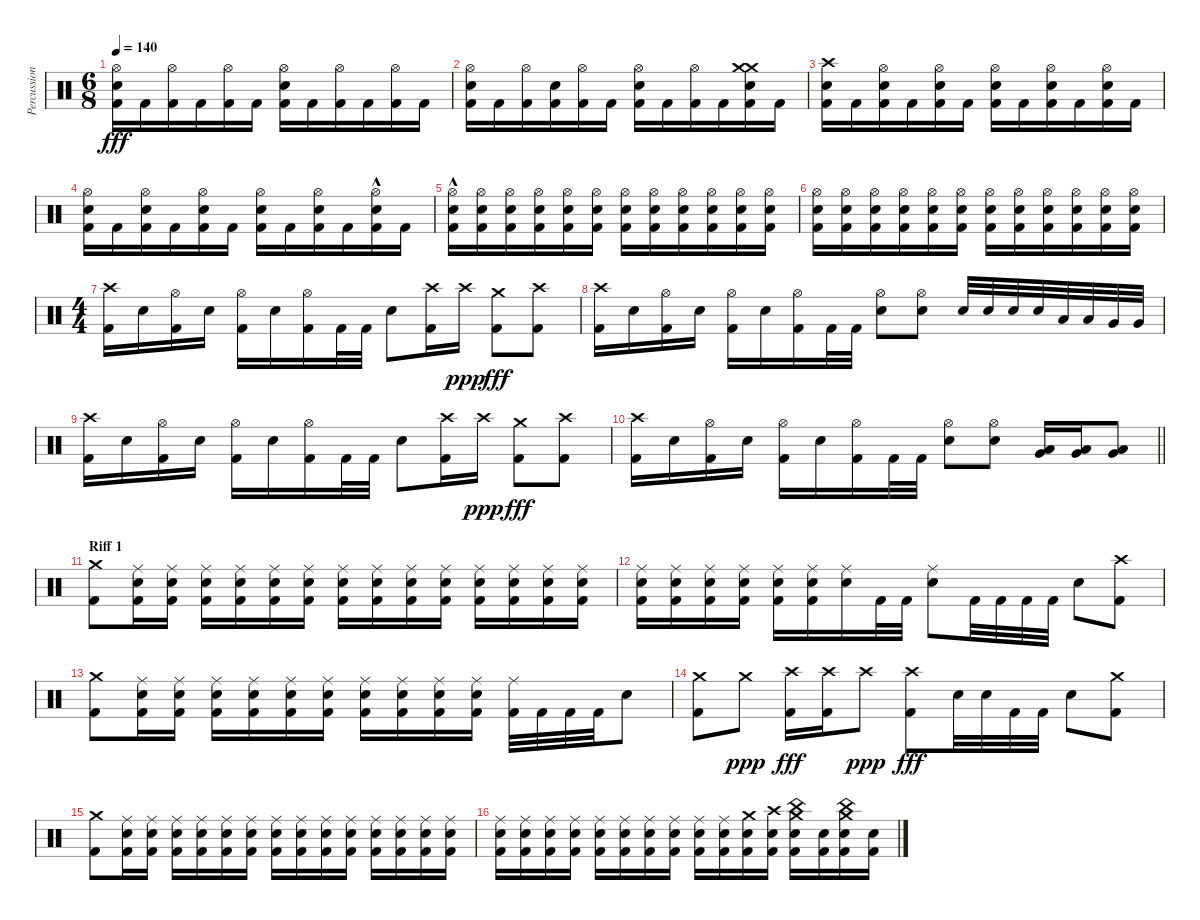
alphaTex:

\track ("Percussion" "Percussion") {instrument percussion}
\staff {score}
\articulation defaults
\ts (6 8)
\tempo 140
\clef neutral
\ks c
("Hi-Hat (open)" "Electric Snare (hit)" "Kick (hit) 2").16{dy fff} "Kick (hit) 2".16 ("Hi-Hat (open)" "Kick (hit) 2").16 "Kick (hit) 2".16 ("Hi-Hat (open)" "Kick (hit) 2").16 "Kick (hit) 2".16 ("Hi-Hat (open)" "Electric Snare (hit)" "Kick (hit) 2").16 "Kick (hit) 2".16 ("Hi-Hat (open)" "Kick (hit) 2").16 "Kick (hit) 2".16 ("Hi-Hat (open)" "Kick (hit) 2").16 "Kick (hit) 2".16 |
("Hi-Hat (open)" "Electric Snare (hit)" "Kick (hit) 2").16 "Kick (hit) 2".16 ("Hi-Hat (open)" "Kick (hit) 2").16 ("Electric Snare (hit)" "Kick (hit) 2").16 ("Hi-Hat (open)" "Kick (hit) 2").16 "Kick (hit) 2".16 ("Hi-Hat (open)" "Electric Snare (hit)" "Kick (hit) 2").16 "Kick (hit) 2".16 ("Hi-Hat (open)" "Kick (hit) 2").16 "Kick (hit) 2".16 ("Crash medium (hit)" "Crash medium (hit)" "Electric Snare (hit)" "Kick (hit) 2").16 "Kick (hit) 2".16 |
("Crash high (hit)" "Electric Snare (hit)" "Kick (hit) 2").16 "Kick (hit) 2".16 ("Hi-Hat (open)" "Electric Snare (hit)" "Kick (hit) 2").16 "Kick (hit) 2".16 ("Hi-Hat (open)" "Electric Snare (hit)" "Kick (hit) 2").16 "Kick (hit) 2".16 ("Hi-Hat (open)" "Electric Snare (hit)" "Kick (hit) 2").16 "Kick (hit) 2".16 ("Hi-Hat (open)" "Electric Snare (hit)" "Kick (hit) 2").16 "Kick (hit) 2".16 ("Hi-Hat (open)" "Electric Snare (hit)" "Kick (hit) 2").16 "Kick (hit) 2".16 |
("Hi-Hat (open)" "Electric Snare (hit)" "Kick (hit) 2").16 "Kick (hit) 2".16 ("Hi-Hat (open)" "Electric Snare (hit)" "Kick (hit) 2").16 "Kick (hit) 2".16 ("Hi-Hat (open)" "Electric Snare (hit)" "Kick (hit) 2").16 "Kick (hit) 2".16 ("Hi-Hat (open)" "Electric Snare (hit)" "Kick (hit) 2").16 "Kick (hit) 2".16 ("Hi-Hat (open)" "Electric Snare (hit)" "Kick (hit) 2").16 "Kick (hit) 2".16 ("Hi-Hat (open)" "Electric Snare (hit)"{hac} "Kick (hit) 2").16 "Kick (hit) 2".16 |
("Hi-Hat (open)" "Electric Snare (hit)"{hac} "Kick (hit) 2").16 ("Hi-Hat (open)" "Electric Snare (hit)" "Kick (hit) 2").16 ("Hi-Hat (open)" "Electric Snare (hit)" "Kick (hit) 2").16 ("Hi-Hat (open)" "Electric Snare (hit)" "Kick (hit) 2").16 ("Hi-Hat (open)" "Electric Snare (hit)" "Kick (hit) 2").16 ("Hi-Hat (open)" "Electric Snare (hit)" "Kick (hit) 2").16 ("Hi-Hat (open)" "Electric Snare (hit)" "Kick (hit) 2").16 ("Hi-Hat (open)" "Electric Snare (hit)" "Kick (hit) 2").16 ("Hi-Hat (open)" "Electric Snare (hit)" "Kick (hit) 2").16 ("Hi-Hat (open)" "Electric Snare (hit)" "Kick (hit) 2").16 ("Hi-Hat (open)" "Electric Snare (hit)" "Kick (hit) 2").16 ("Hi-Hat (open)" "Electric Snare (hit)" "Kick (hit) 2").16 |
("Hi-Hat (open)" "Electric Snare (hit)" "Kick (hit) 2").16 ("Hi-Hat (open)" "Electric Snare (hit)" "Kick (hit) 2").16 ("Hi-Hat (open)" "Electric Snare (hit)" "Kick (hit) 2").16 ("Hi-Hat (open)" "Electric Snare (hit)" "Kick (hit) 2").16 ("Hi-Hat (open)" "Electric Snare (hit)" "Kick (hit) 2").16 ("Hi-Hat (open)" "Electric Snare (hit)" "Kick (hit) 2").16 ("Hi-Hat (open)" "Electric Snare (hit)" "Kick (hit) 2").16 ("Hi-Hat (open)" "Electric Snare (hit)" "Kick (hit) 2").16 ("Hi-Hat (open)" "Electric Snare (hit)" "Kick (hit) 2").16 ("Hi-Hat (open)" "Electric Snare (hit)" "Kick (hit) 2").16 ("Hi-Hat (open)" "Electric Snare (hit)" "Kick (hit) 2").16 ("Hi-Hat (open)" "Electric Snare (hit)" "Kick (hit) 2").16 |
\ts (4 4)
("Crash high (hit)" "Kick (hit) 2").16 "Electric Snare (hit)".16 ("Hi-Hat (open)" "Kick (hit) 2").16 "Electric Snare (hit)".16 ("Hi-Hat (open)" "Kick (hit) 2").16 "Electric Snare (hit)".16 ("Hi-Hat (open)" "Kick (hit) 2").16 "Kick (hit) 2".32 "Kick (hit) 2".32 "Electric Snare (hit)".8 ("Crash high (hit)" "Kick (hit) 2").16 "Crash high (hit)".16{dy ppp} ("Crash medium (hit)" "Kick (hit) 2").8{dy fff} ("Crash high (hit)" "Kick (hit) 2").8 |
("Crash high (hit)" "Kick (hit) 2").16 "Electric Snare (hit)".16 ("Hi-Hat (open)" "Kick (hit) 2").16 "Electric Snare (hit)".16 ("Hi-Hat (open)" "Kick (hit) 2").16 "Electric Snare (hit)".16 ("Hi-Hat (open)" "Kick (hit) 2").16 "Kick (hit) 2".32 "Kick (hit) 2".32 ("Hi-Hat (open)" "Electric Snare (hit)").8 ("Hi-Hat (open)" "Electric Snare (hit)").8 "Electric Snare (hit)".32 "Electric Snare (hit)".32 "Electric Snare (hit)".32 "Electric Snare (hit)".32 "Low Tom (hit)".32 "Low Tom (hit)".32 "Very Low Tom (hit)".32 "Very Low Tom (hit)".32 |
("Crash high (hit)" "Kick (hit) 2").16 "Electric Snare (hit)".16 ("Hi-Hat (open)" "Kick (hit) 2").16 "Electric Snare (hit)".16 ("Hi-Hat (open)" "Kick (hit) 2").16 "Electric Snare (hit)".16 ("Hi-Hat (open)" "Kick (hit) 2").16 "Kick (hit) 2".32 "Kick (hit) 2".32 "Electric Snare (hit)".8 ("Crash high (hit)" "Kick (hit) 2").16 "Crash high (hit)".16{dy ppp} ("Crash medium (hit)" "Kick (hit) 2").8{dy fff} ("Crash high (hit)" "Kick (hit) 2").8 |
\barLineRight lightlight
("Crash high (hit)" "Kick (hit) 2").16 "Electric Snare (hit)".16 ("Hi-Hat (open)" "Kick (hit) 2").16 "Electric Snare (hit)".16 ("Hi-Hat (open)" "Kick (hit) 2").16 "Electric Snare (hit)".16 ("Hi-Hat (open)" "Kick (hit) 2").16 "Kick (hit) 2".32 "Kick (hit) 2".32 ("Hi-Hat (open)" "Electric Snare (hit)").8 ("Hi-Hat (open)" "Electric Snare (hit)").8 ("Very Low Tom (hit)" "Low Floor Tom (hit)").16 ("Very Low Tom (hit)" "Low Floor Tom (hit)").16 ("Very Low Tom (hit)" "Low Floor Tom (hit)").8 |
\section ("" "Riff 1")
("Crash medium (hit)" "Kick (hit) 2").8 ("Ride (middle)" "Electric Snare (hit)" "Kick (hit) 2").16 ("Ride (middle)" "Electric Snare (hit)" "Kick (hit) 2").16 ("Ride (middle)" "Electric Snare (hit)" "Kick (hit) 2").16 ("Ride (middle)" "Electric Snare (hit)" "Kick (hit) 2").16 ("Ride (middle)" "Electric Snare (hit)" "Kick (hit) 2").16 ("Ride (middle)" "Electric Snare (hit)" "Kick (hit) 2").16 ("Ride (middle)" "Electric Snare (hit)" "Kick (hit) 2").16 ("Ride (middle)" "Electric Snare (hit)" "Kick (hit) 2").16 ("Ride (middle)" "Electric Snare (hit)" "Kick (hit) 2").16 ("Ride (middle)" "Electric Snare (hit)" "Kick (hit) 2").16 ("Ride (middle)" "Electric Snare (hit)" "Kick (hit) 2").16 ("Ride (middle)" "Electric Snare (hit)" "Kick (hit) 2").16 ("Ride (middle)" "Electric Snare (hit)" "Kick (hit) 2").16 ("Ride (middle)" "Electric Snare (hit)" "Kick (hit) 2").16 |
("Ride (middle)" "Electric Snare (hit)" "Kick (hit) 2").16 ("Ride (middle)" "Electric Snare (hit)" "Kick (hit) 2").16 ("Ride (middle)" "Electric Snare (hit)" "Kick (hit) 2").16 ("Ride (middle)" "Electric Snare (hit)" "Kick (hit) 2").16 ("Ride (middle)" "Electric Snare (hit)" "Kick (hit) 2").16 ("Ride (middle)" "Electric Snare (hit)" "Kick (hit) 2").16 ("Ride (middle)" "Electric Snare (hit)").16 "Kick (hit) 2".32 "Kick (hit) 2".32 ("Ride (middle)" "Electric Snare (hit)").8 "Kick (hit) 2".32 "Kick (hit) 2".32 "Kick (hit) 2".32 "Kick (hit) 2".32 "Electric Snare (hit)".8 ("Crash high (hit)" "Kick (hit) 2").8 |
("Crash medium (hit)" "Kick (hit) 2").8 ("Ride (middle)" "Electric Snare (hit)" "Kick (hit) 2").16 ("Ride (middle)" "Electric Snare (hit)" "Kick (hit) 2").16 ("Ride (middle)" "Electric Snare (hit)" "Kick (hit) 2").16 ("Ride (middle)" "Electric Snare (hit)" "Kick (hit) 2").16 ("Ride (middle)" "Electric Snare (hit)" "Kick (hit) 2").16 ("Ride (middle)" "Electric Snare (hit)" "Kick (hit) 2").16 ("Ride (middle)" "Electric Snare (hit)" "Kick (hit) 2").16 ("Ride (middle)" "Electric Snare (hit)" "Kick (hit) 2").16 ("Ride (middle)" "Electric Snare (hit)" "Kick (hit) 2").16 ("Ride (middle)" "Electric Snare (hit)" "Kick (hit) 2").16 ("Ride (middle)" "Kick (hit) 2").32 "Kick (hit) 2".32 "Kick (hit) 2".32 "Kick (hit) 2".32 "Electric Snare (hit)".8 |
("Crash medium (hit)" "Kick (hit) 2").8 "Crash medium (hit)".8{dy ppp} ("Crash high (hit)" "Kick (hit) 2").16{dy fff} ("Crash high (hit)" "Kick (hit) 2").16 "Crash high (hit)".8{dy ppp} ("Crash high (hit)" "Kick (hit) 2").8{dy fff} "Electric Snare (hit)".32 "Electric Snare (hit)".32 "Kick (hit) 2".32 "Kick (hit) 2".32 "Electric Snare (hit)".8 ("Crash medium (hit)" "Kick (hit) 2").8 |
("Crash medium (hit)" "Kick (hit) 2").8 ("Ride (middle)" "Electric Snare (hit)" "Kick (hit) 2").16 ("Ride (middle)" "Electric Snare (hit)" "Kick (hit) 2").16 ("Ride (middle)" "Electric Snare (hit)" "Kick (hit) 2").16 ("Ride (middle)" "Electric Snare (hit)" "Kick (hit) 2").16 ("Ride (middle)" "Electric Snare (hit)" "Kick (hit) 2").16 ("Ride (middle)" "Electric Snare (hit)" "Kick (hit) 2").16 ("Ride (middle)" "Electric Snare (hit)" "Kick (hit) 2").16 ("Ride (middle)" "Electric Snare (hit)" "Kick (hit) 2").16 ("Ride (middle)" "Electric Snare (hit)" "Kick (hit) 2").16 ("Ride (middle)" "Electric Snare (hit)" "Kick (hit) 2").16 ("Ride (middle)" "Electric Snare (hit)" "Kick (hit) 2").16 ("Ride (middle)" "Electric Snare (hit)" "Kick (hit) 2").16 ("Ride (middle)" "Electric Snare (hit)" "Kick (hit) 2").16 ("Ride (middle)" "Electric Snare (hit)" "Kick (hit) 2").16 |
("Ride (middle)" "Electric Snare (hit)" "Kick (hit) 2").16 ("Ride (middle)" "Electric Snare (hit)" "Kick (hit) 2").16 ("Ride (middle)" "Electric Snare (hit)" "Kick (hit) 2").16 ("Ride (middle)" "Electric Snare (hit)" "Kick (hit) 2").16 ("Ride (middle)" "Electric Snare (hit)" "Kick (hit) 2").16 ("Ride (middle)" "Electric Snare (hit)" "Kick (hit) 2").16 ("Ride (middle)" "Electric Snare (hit)" "Kick (hit) 2").16 ("Ride (middle)" "Electric Snare (hit)" "Kick (hit) 2").16 ("Ride (middle)" "Electric Snare (hit)" "Kick (hit) 2").16 ("Ride (middle)" "Electric Snare (hit)" "Kick (hit) 2").16 ("Crash medium (hit)" "Electric Snare (hit)" "Kick (hit) 2").16 ("Crash high (hit)" "Electric Snare (hit)" "Kick (hit) 2").16 ("China (hit)" "Crash medium (hit)" "Electric Snare (hit)" "Kick (hit) 2").16 ("Electric Snare (hit)" "Kick (hit) 2").16 ("China (hit)" "Crash medium (hit)" "Electric Snare (hit)" "Kick (hit) 2").16 ("Electric Snare (hit)" "Kick (hit) 2").16
